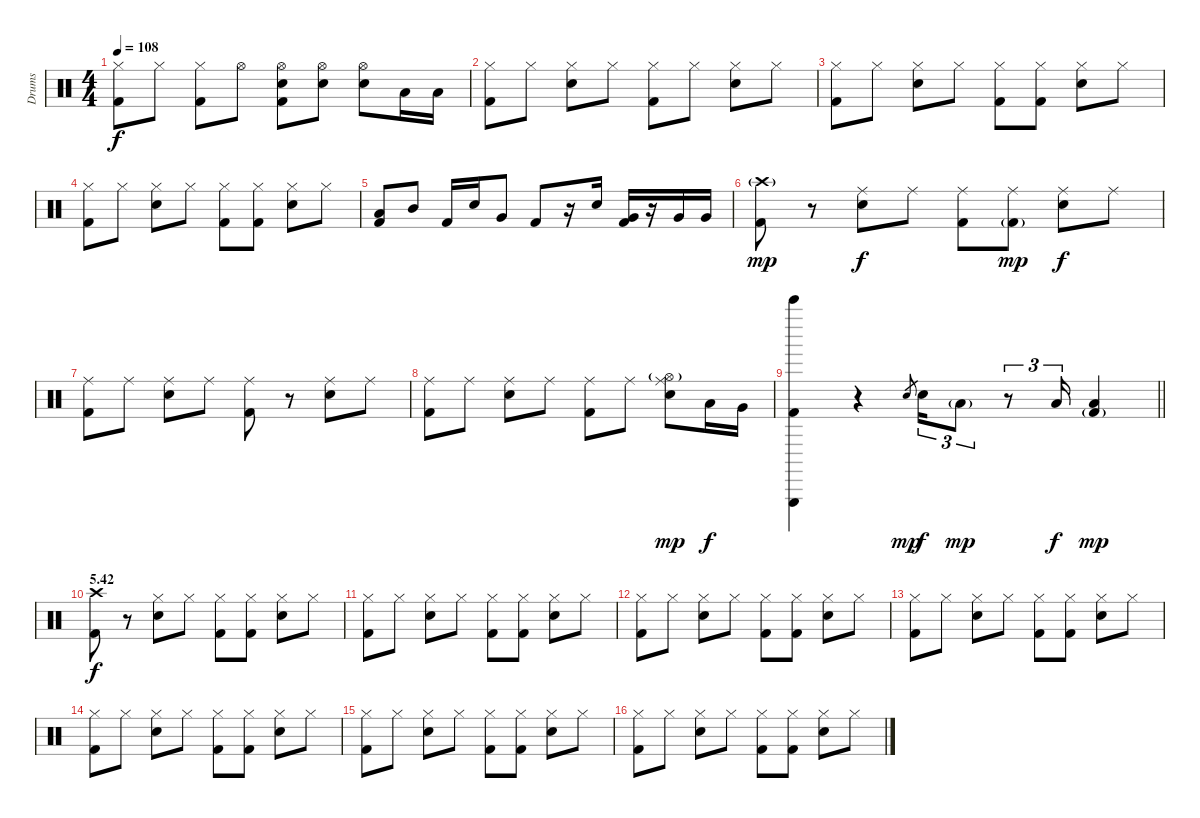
\track ("Drums" "Drums") {instrument percussion}
\staff {score}
\articulation defaults
\ts (4 4)
\tempo 108
\clef neutral
\ks c
("Hi-Hat (closed)" "Kick (hit) 2").8{dy f} "Hi-Hat (closed)".8 ("Hi-Hat (closed)" "Kick (hit) 2").8 "Hi-Hat (open)".8 ("Hi-Hat (open)" "Electric Snare (hit)" "Kick (hit) 2").8 ("Hi-Hat (open)" "Electric Snare (hit)").8 ("Hi-Hat (open)" "Electric Snare (hit)").8 "Low Tom (hit)".16 "Low Tom (hit)".16 |
("Hi-Hat (closed)" "Kick (hit) 2").8 "Hi-Hat (closed)".8 ("Hi-Hat (closed)" "Electric Snare (hit)").8 "Hi-Hat (closed)".8 ("Hi-Hat (closed)" "Kick (hit) 2").8 "Hi-Hat (closed)".8 ("Hi-Hat (closed)" "Electric Snare (hit)").8 "Hi-Hat (closed)".8 |
("Hi-Hat (closed)" "Kick (hit) 2").8 "Hi-Hat (closed)".8 ("Hi-Hat (closed)" "Electric Snare (hit)").8 "Hi-Hat (closed)".8 ("Hi-Hat (closed)" "Kick (hit) 2").8 ("Hi-Hat (closed)" "Kick (hit) 2").8 ("Hi-Hat (closed)" "Electric Snare (hit)").8 "Hi-Hat (closed)".8 |
("Hi-Hat (closed)" "Kick (hit) 2").8 "Hi-Hat (closed)".8 ("Hi-Hat (closed)" "Electric Snare (hit)").8 "Hi-Hat (closed)".8 ("Hi-Hat (closed)" "Kick (hit) 2").8 ("Hi-Hat (closed)" "Kick (hit) 2").8 ("Hi-Hat (closed)" "Electric Snare (hit)").8 "Hi-Hat (closed)".8 |
("Low Tom (hit)" "Kick (hit) 2").8 "Mid Tom (hit)".8 "Kick (hit) 2".16 "Electric Snare (hit)".16 "Very Low Tom (hit)".8 "Kick (hit) 2".8 r.16 "Electric Snare (hit)".16 ("Very Low Tom (hit)" "Kick (hit) 2").16 r.16 "Very Low Tom (hit)".16 "Very Low Tom (hit)".16 |
("Crash high (hit)"{g} "Kick (hit) 2").8{dy mp} r.8 ("Ride (middle)" "Electric Snare (hit)").8{dy f} "Ride (middle)".8 ("Ride (middle)" "Kick (hit) 2").8 ("Ride (middle)" "Kick (hit) 2"{g}).8{dy mp} ("Ride (middle)" "Electric Snare (hit)").8{dy f} "Ride (middle)".8 |
("Ride (middle)" "Kick (hit) 2").8 "Ride (middle)".8 ("Ride (middle)" "Electric Snare (hit)").8 "Ride (middle)".8 ("Ride (middle)" "Kick (hit) 2").8 r.8 ("Ride (middle)" "Electric Snare (hit)").8 "Ride (middle)".8 |
("Ride (middle)" "Kick (hit) 2").8 "Ride (middle)".8 ("Ride (middle)" "Electric Snare (hit)").8 "Ride (middle)".8 ("Ride (middle)" "Kick (hit) 2").8 "Ride (middle)".8 ("Ride (middle)" "Hi-Hat (open)"{g} "Electric Snare (hit)").8{dy mp} "Low Tom (hit)".16{dy f} "Very Low Tom (hit)".16 |
\barLineRight lightlight
("Triangle (hit)" "Bell Tree (hit)" "Kick (hit) 2").4 r.4 "Electric Snare (hit)".8{gr dy mp} "Electric Snare (hit)".16{tu (3 2) dy f} "Low Tom (hit)"{g}.8{tu (3 2) dy mp} r.8{tu (3 2)} "Low Tom (hit)".16{tu (3 2) dy f} ("Low Tom (hit)" "Kick (hit) 2"{g}).4{dy mp} |
\section ("" "5.42")
("Crash high (hit)" "Kick (hit) 2").8{dy f} r.8 ("Hi-Hat (closed)" "Electric Snare (hit)").8 "Hi-Hat (closed)".8 ("Hi-Hat (closed)" "Kick (hit) 2").8 ("Hi-Hat (closed)" "Kick (hit) 2").8 ("Hi-Hat (closed)" "Electric Snare (hit)").8 "Hi-Hat (closed)".8 |
("Hi-Hat (closed)" "Kick (hit) 2").8 "Hi-Hat (closed)".8 ("Hi-Hat (closed)" "Electric Snare (hit)").8 "Hi-Hat (closed)".8 ("Hi-Hat (closed)" "Kick (hit) 2").8 ("Hi-Hat (closed)" "Kick (hit) 2").8 ("Hi-Hat (closed)" "Electric Snare (hit)").8 "Hi-Hat (closed)".8 |
("Hi-Hat (closed)" "Kick (hit) 2").8 "Hi-Hat (closed)".8 ("Hi-Hat (closed)" "Electric Snare (hit)").8 "Hi-Hat (closed)".8 ("Hi-Hat (closed)" "Kick (hit) 2").8 ("Hi-Hat (closed)" "Kick (hit) 2").8 ("Hi-Hat (closed)" "Electric Snare (hit)").8 "Hi-Hat (closed)".8 |
("Hi-Hat (closed)" "Kick (hit) 2").8 "Hi-Hat (closed)".8 ("Hi-Hat (closed)" "Electric Snare (hit)").8 "Hi-Hat (closed)".8 ("Hi-Hat (closed)" "Kick (hit) 2").8 ("Hi-Hat (closed)" "Kick (hit) 2").8 ("Hi-Hat (closed)" "Electric Snare (hit)").8 "Hi-Hat (closed)".8 |
("Hi-Hat (closed)" "Kick (hit) 2").8 "Hi-Hat (closed)".8 ("Hi-Hat (closed)" "Electric Snare (hit)").8 "Hi-Hat (closed)".8 ("Hi-Hat (closed)" "Kick (hit) 2").8 ("Hi-Hat (closed)" "Kick (hit) 2").8 ("Hi-Hat (closed)" "Electric Snare (hit)").8 "Hi-Hat (closed)".8 |
("Hi-Hat (closed)" "Kick (hit) 2").8 "Hi-Hat (closed)".8 ("Hi-Hat (closed)" "Electric Snare (hit)").8 "Hi-Hat (closed)".8 ("Hi-Hat (closed)" "Kick (hit) 2").8 ("Hi-Hat (closed)" "Kick (hit) 2").8 ("Hi-Hat (closed)" "Electric Snare (hit)").8 "Hi-Hat (closed)".8 |
("Hi-Hat (closed)" "Kick (hit) 2").8 "Hi-Hat (closed)".8 ("Hi-Hat (closed)" "Electric Snare (hit)").8 "Hi-Hat (closed)".8 ("Hi-Hat (closed)" "Kick (hit) 2").8 ("Hi-Hat (closed)" "Kick (hit) 2").8 ("Hi-Hat (closed)" "Electric Snare (hit)").8 "Hi-Hat (closed)".8
